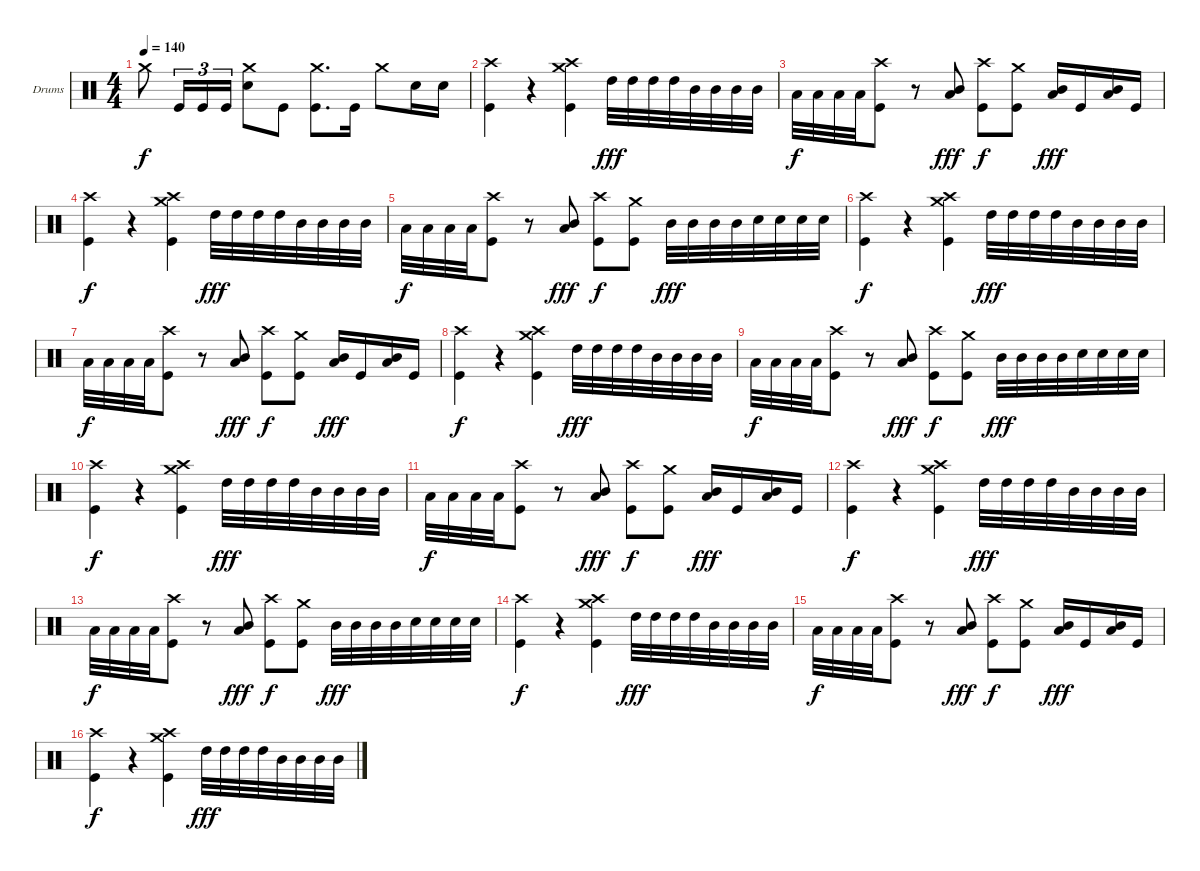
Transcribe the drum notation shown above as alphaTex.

\defaultSystemsLayout 4
\bracketExtendMode groupsimilarinstruments
\firstSystemTrackNameOrientation horizontal
\otherSystemsTrackNameOrientation horizontal
\track ("Drumkit" "Drums") {instrument percussion}
\staff {score}
\articulation defaults
\ts (4 4)
\tempo 140
\clef neutral
\scale
0.333333
\ks c "Crash medium (hit)".8{dy f} "Kick (hit)".16{tu (3 2)} "Kick (hit)".16{tu (3 2)} "Kick (hit)".16{tu (3 2)}
("Crash medium (hit)" "Snare (hit) 2").8 "Kick (hit)".8 ("Crash medium (hit)" "Kick (hit)").8{d} "Kick (hit)".16 "Crash medium (hit)".8 "Snare (hit) 2".16 "Snare (hit) 2".16 |
("Crash high (hit)" "Kick (hit)").4 r.4 ("Crash high (hit)" "Crash medium (hit)" "Kick (hit)").4 "High Tom (hit)".32{dy fff} "High Tom (hit)".32 "High Tom (hit)".32 "High Tom (hit)".32 "Mid Tom (hit)".32 "Mid Tom (hit)".32 "Mid Tom (hit)".32 "Mid Tom (hit)".32 |
"Low Tom (hit)".32{dy f} "Low Tom (hit)".32 "Low Tom (hit)".32 "Low Tom (hit)".32 ("Crash high (hit)" "Kick (hit)").8 r.8 ("Mid Tom (hit)" "Low Tom (hit)").8{dy fff} ("Crash high (hit)" "Kick (hit)").8{dy f} ("Crash medium (hit)" "Kick (hit)").8 ("Mid Tom (hit)" "Low Tom (hit)").16{dy fff} "Kick (hit)".16 ("Mid Tom (hit)" "Low Tom (hit)").16 "Kick (hit)".16 |
("Crash high (hit)" "Kick (hit)").4{dy f} r.4 ("Crash high (hit)" "Crash medium (hit)" "Kick (hit)").4 "High Tom (hit)".32{dy fff} "High Tom (hit)".32 "High Tom (hit)".32 "High Tom (hit)".32 "Mid Tom (hit)".32 "Mid Tom (hit)".32 "Mid Tom (hit)".32 "Mid Tom (hit)".32 |
"Low Tom (hit)".32{dy f} "Low Tom (hit)".32 "Low Tom (hit)".32 "Low Tom (hit)".32 ("Crash high (hit)" "Kick (hit)").8 r.8 ("Mid Tom (hit)" "Low Tom (hit)").8{dy fff} ("Crash high (hit)" "Kick (hit)").8{dy f} ("Crash medium (hit)" "Kick (hit)").8 "Mid Tom (hit)".32{dy fff} "Mid Tom (hit)".32 "Mid Tom (hit)".32 "Mid Tom (hit)".32 "Snare (hit) 2".32 "Snare (hit) 2".32 "Snare (hit) 2".32 "Snare (hit) 2".32 |
("Crash high (hit)" "Kick (hit)").4{dy f} r.4 ("Crash high (hit)" "Crash medium (hit)" "Kick (hit)").4 "High Tom (hit)".32{dy fff} "High Tom (hit)".32 "High Tom (hit)".32 "High Tom (hit)".32 "Mid Tom (hit)".32 "Mid Tom (hit)".32 "Mid Tom (hit)".32 "Mid Tom (hit)".32 |
"Low Tom (hit)".32{dy f} "Low Tom (hit)".32 "Low Tom (hit)".32 "Low Tom (hit)".32 ("Crash high (hit)" "Kick (hit)").8 r.8 ("Mid Tom (hit)" "Low Tom (hit)").8{dy fff} ("Crash high (hit)" "Kick (hit)").8{dy f} ("Crash medium (hit)" "Kick (hit)").8 ("Mid Tom (hit)" "Low Tom (hit)").16{dy fff} "Kick (hit)".16 ("Mid Tom (hit)" "Low Tom (hit)").16 "Kick (hit)".16 |
("Crash high (hit)" "Kick (hit)").4{dy f} r.4 ("Crash high (hit)" "Crash medium (hit)" "Kick (hit)").4 "High Tom (hit)".32{dy fff} "High Tom (hit)".32 "High Tom (hit)".32 "High Tom (hit)".32 "Mid Tom (hit)".32 "Mid Tom (hit)".32 "Mid Tom (hit)".32 "Mid Tom (hit)".32 |
"Low Tom (hit)".32{dy f} "Low Tom (hit)".32 "Low Tom (hit)".32 "Low Tom (hit)".32 ("Crash high (hit)" "Kick (hit)").8 r.8 ("Mid Tom (hit)" "Low Tom (hit)").8{dy fff} ("Crash high (hit)" "Kick (hit)").8{dy f} ("Crash medium (hit)" "Kick (hit)").8 "Mid Tom (hit)".32{dy fff} "Mid Tom (hit)".32 "Mid Tom (hit)".32 "Mid Tom (hit)".32 "Snare (hit) 2".32 "Snare (hit) 2".32 "Snare (hit) 2".32 "Snare (hit) 2".32 |
("Crash high (hit)" "Kick (hit)").4{dy f} r.4 ("Crash high (hit)" "Crash medium (hit)" "Kick (hit)").4 "High Tom (hit)".32{dy fff} "High Tom (hit)".32 "High Tom (hit)".32 "High Tom (hit)".32 "Mid Tom (hit)".32 "Mid Tom (hit)".32 "Mid Tom (hit)".32 "Mid Tom (hit)".32 |
"Low Tom (hit)".32{dy f} "Low Tom (hit)".32 "Low Tom (hit)".32 "Low Tom (hit)".32 ("Crash high (hit)" "Kick (hit)").8 r.8 ("Mid Tom (hit)" "Low Tom (hit)").8{dy fff} ("Crash high (hit)" "Kick (hit)").8{dy f} ("Crash medium (hit)" "Kick (hit)").8 ("Mid Tom (hit)" "Low Tom (hit)").16{dy fff} "Kick (hit)".16 ("Mid Tom (hit)" "Low Tom (hit)").16 "Kick (hit)".16 |
("Crash high (hit)" "Kick (hit)").4{dy f} r.4 ("Crash high (hit)" "Crash medium (hit)" "Kick (hit)").4 "High Tom (hit)".32{dy fff} "High Tom (hit)".32 "High Tom (hit)".32 "High Tom (hit)".32 "Mid Tom (hit)".32 "Mid Tom (hit)".32 "Mid Tom (hit)".32 "Mid Tom (hit)".32 |
"Low Tom (hit)".32{dy f} "Low Tom (hit)".32 "Low Tom (hit)".32 "Low Tom (hit)".32 ("Crash high (hit)" "Kick (hit)").8 r.8 ("Mid Tom (hit)" "Low Tom (hit)").8{dy fff} ("Crash high (hit)" "Kick (hit)").8{dy f} ("Crash medium (hit)" "Kick (hit)").8 "Mid Tom (hit)".32{dy fff} "Mid Tom (hit)".32 "Mid Tom (hit)".32 "Mid Tom (hit)".32 "Snare (hit) 2".32 "Snare (hit) 2".32 "Snare (hit) 2".32 "Snare (hit) 2".32 |
("Crash high (hit)" "Kick (hit)").4{dy f} r.4 ("Crash high (hit)" "Crash medium (hit)" "Kick (hit)").4 "High Tom (hit)".32{dy fff} "High Tom (hit)".32 "High Tom (hit)".32 "High Tom (hit)".32 "Mid Tom (hit)".32 "Mid Tom (hit)".32 "Mid Tom (hit)".32 "Mid Tom (hit)".32 |
"Low Tom (hit)".32{dy f} "Low Tom (hit)".32 "Low Tom (hit)".32 "Low Tom (hit)".32 ("Crash high (hit)" "Kick (hit)").8 r.8 ("Mid Tom (hit)" "Low Tom (hit)").8{dy fff} ("Crash high (hit)" "Kick (hit)").8{dy f} ("Crash medium (hit)" "Kick (hit)").8 ("Mid Tom (hit)" "Low Tom (hit)").16{dy fff} "Kick (hit)".16 ("Mid Tom (hit)" "Low Tom (hit)").16 "Kick (hit)".16 |
("Crash high (hit)" "Kick (hit)").4{dy f} r.4 ("Crash high (hit)" "Crash medium (hit)" "Kick (hit)").4 "High Tom (hit)".32{dy fff} "High Tom (hit)".32 "High Tom (hit)".32 "High Tom (hit)".32 "Mid Tom (hit)".32 "Mid Tom (hit)".32 "Mid Tom (hit)".32 "Mid Tom (hit)".32
